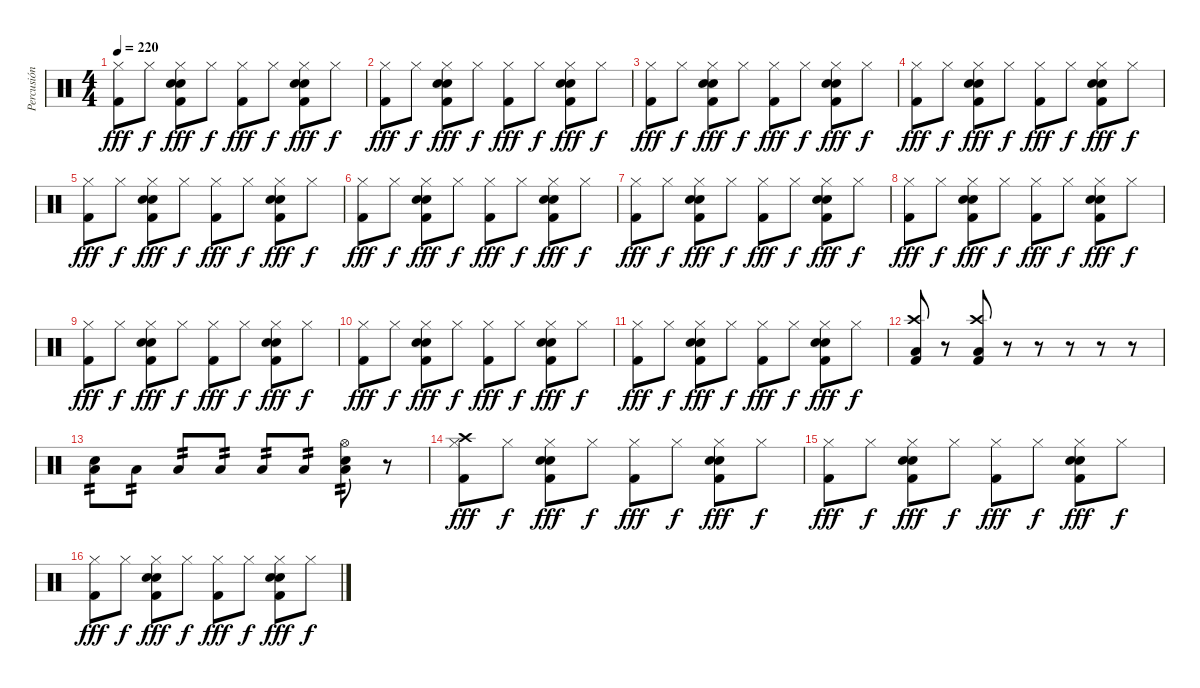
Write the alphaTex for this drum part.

\track ("Percusión" "Percusión") {instrument percussion}
\staff {score}
\articulation defaults
\ts (4 4)
\tempo 220
\clef neutral
\ks c
("Hi-Hat (closed)" "Kick (hit) 2").8{dy fff} "Hi-Hat (closed)".8{dy f} ("Hi-Hat (closed)" "Electric Snare (hit)" "Snare (hit) 2" "Kick (hit) 2").8{dy fff} "Hi-Hat (closed)".8{dy f} ("Hi-Hat (closed)" "Kick (hit) 2").8{dy fff} "Hi-Hat (closed)".8{dy f} ("Hi-Hat (closed)" "Electric Snare (hit)" "Snare (hit) 2" "Kick (hit) 2").8{dy fff} "Hi-Hat (closed)".8{dy f} |
("Hi-Hat (closed)" "Kick (hit) 2").8{dy fff} "Hi-Hat (closed)".8{dy f} ("Hi-Hat (closed)" "Electric Snare (hit)" "Snare (hit) 2" "Kick (hit) 2").8{dy fff} "Hi-Hat (closed)".8{dy f} ("Hi-Hat (closed)" "Kick (hit) 2").8{dy fff} "Hi-Hat (closed)".8{dy f} ("Hi-Hat (closed)" "Electric Snare (hit)" "Snare (hit) 2" "Kick (hit) 2").8{dy fff} "Hi-Hat (closed)".8{dy f} |
("Hi-Hat (closed)" "Kick (hit) 2").8{dy fff} "Hi-Hat (closed)".8{dy f} ("Hi-Hat (closed)" "Electric Snare (hit)" "Snare (hit) 2" "Kick (hit) 2").8{dy fff} "Hi-Hat (closed)".8{dy f} ("Hi-Hat (closed)" "Kick (hit) 2").8{dy fff} "Hi-Hat (closed)".8{dy f} ("Hi-Hat (closed)" "Electric Snare (hit)" "Snare (hit) 2" "Kick (hit) 2").8{dy fff} "Hi-Hat (closed)".8{dy f} |
("Hi-Hat (closed)" "Kick (hit) 2").8{dy fff} "Hi-Hat (closed)".8{dy f} ("Hi-Hat (closed)" "Electric Snare (hit)" "Snare (hit) 2" "Kick (hit) 2").8{dy fff} "Hi-Hat (closed)".8{dy f} ("Hi-Hat (closed)" "Kick (hit) 2").8{dy fff} "Hi-Hat (closed)".8{dy f} ("Hi-Hat (closed)" "Electric Snare (hit)" "Snare (hit) 2" "Kick (hit) 2").8{dy fff} "Hi-Hat (closed)".8{dy f} |
("Hi-Hat (closed)" "Kick (hit) 2").8{dy fff} "Hi-Hat (closed)".8{dy f} ("Hi-Hat (closed)" "Electric Snare (hit)" "Snare (hit) 2" "Kick (hit) 2").8{dy fff} "Hi-Hat (closed)".8{dy f} ("Hi-Hat (closed)" "Kick (hit) 2").8{dy fff} "Hi-Hat (closed)".8{dy f} ("Hi-Hat (closed)" "Electric Snare (hit)" "Snare (hit) 2" "Kick (hit) 2").8{dy fff} "Hi-Hat (closed)".8{dy f} |
("Hi-Hat (closed)" "Kick (hit) 2").8{dy fff} "Hi-Hat (closed)".8{dy f} ("Hi-Hat (closed)" "Electric Snare (hit)" "Snare (hit) 2" "Kick (hit) 2").8{dy fff} "Hi-Hat (closed)".8{dy f} ("Hi-Hat (closed)" "Kick (hit) 2").8{dy fff} "Hi-Hat (closed)".8{dy f} ("Hi-Hat (closed)" "Electric Snare (hit)" "Snare (hit) 2" "Kick (hit) 2").8{dy fff} "Hi-Hat (closed)".8{dy f} |
("Hi-Hat (closed)" "Kick (hit) 2").8{dy fff} "Hi-Hat (closed)".8{dy f} ("Hi-Hat (closed)" "Electric Snare (hit)" "Snare (hit) 2" "Kick (hit) 2").8{dy fff} "Hi-Hat (closed)".8{dy f} ("Hi-Hat (closed)" "Kick (hit) 2").8{dy fff} "Hi-Hat (closed)".8{dy f} ("Hi-Hat (closed)" "Electric Snare (hit)" "Snare (hit) 2" "Kick (hit) 2").8{dy fff} "Hi-Hat (closed)".8{dy f} |
("Hi-Hat (closed)" "Kick (hit) 2").8{dy fff} "Hi-Hat (closed)".8{dy f} ("Hi-Hat (closed)" "Electric Snare (hit)" "Snare (hit) 2" "Kick (hit) 2").8{dy fff} "Hi-Hat (closed)".8{dy f} ("Hi-Hat (closed)" "Kick (hit) 2").8{dy fff} "Hi-Hat (closed)".8{dy f} ("Hi-Hat (closed)" "Electric Snare (hit)" "Snare (hit) 2" "Kick (hit) 2").8{dy fff} "Hi-Hat (closed)".8{dy f} |
("Hi-Hat (closed)" "Kick (hit) 2").8{dy fff} "Hi-Hat (closed)".8{dy f} ("Hi-Hat (closed)" "Electric Snare (hit)" "Snare (hit) 2" "Kick (hit) 2").8{dy fff} "Hi-Hat (closed)".8{dy f} ("Hi-Hat (closed)" "Kick (hit) 2").8{dy fff} "Hi-Hat (closed)".8{dy f} ("Hi-Hat (closed)" "Electric Snare (hit)" "Snare (hit) 2" "Kick (hit) 2").8{dy fff} "Hi-Hat (closed)".8{dy f} |
("Hi-Hat (closed)" "Kick (hit) 2").8{dy fff} "Hi-Hat (closed)".8{dy f} ("Hi-Hat (closed)" "Electric Snare (hit)" "Snare (hit) 2" "Kick (hit) 2").8{dy fff} "Hi-Hat (closed)".8{dy f} ("Hi-Hat (closed)" "Kick (hit) 2").8{dy fff} "Hi-Hat (closed)".8{dy f} ("Hi-Hat (closed)" "Electric Snare (hit)" "Snare (hit) 2" "Kick (hit) 2").8{dy fff} "Hi-Hat (closed)".8{dy f} |
("Hi-Hat (closed)" "Kick (hit) 2").8{dy fff} "Hi-Hat (closed)".8{dy f} ("Hi-Hat (closed)" "Electric Snare (hit)" "Snare (hit) 2" "Kick (hit) 2").8{dy fff} "Hi-Hat (closed)".8{dy f} ("Hi-Hat (closed)" "Kick (hit) 2").8{dy fff} "Hi-Hat (closed)".8{dy f} ("Hi-Hat (closed)" "Electric Snare (hit)" "Snare (hit) 2" "Kick (hit) 2").8{dy fff} "Hi-Hat (closed)".8{dy f} |
("Crash high (hit)" "Kick (hit) 2" "Low Tom (hit)").8 r.8 ("Crash high (hit)" "Kick (hit) 2" "Low Tom (hit)").8 r.8 r.8 r.8 r.8 r.8 |
("Electric Snare (hit)" "Low Tom (hit)").8{tp 2} "Low Tom (hit)".8{tp 2} "Low Tom (hit)".8{tp 2} "Low Tom (hit)".8{tp 2} "Low Tom (hit)".8{tp 2} "Low Tom (hit)".8{tp 2} ("Hi-Hat (open)" "Snare (hit) 2" "Low Tom (hit)").8{tp 2} r.8 |
("Crash high (hit)" "Hi-Hat (closed)" "Kick (hit) 2").8{dy fff} "Hi-Hat (closed)".8{dy f} ("Hi-Hat (closed)" "Electric Snare (hit)" "Snare (hit) 2" "Kick (hit) 2").8{dy fff} "Hi-Hat (closed)".8{dy f} ("Hi-Hat (closed)" "Kick (hit) 2").8{dy fff} "Hi-Hat (closed)".8{dy f} ("Hi-Hat (closed)" "Electric Snare (hit)" "Snare (hit) 2" "Kick (hit) 2").8{dy fff} "Hi-Hat (closed)".8{dy f} |
("Hi-Hat (closed)" "Kick (hit) 2").8{dy fff} "Hi-Hat (closed)".8{dy f} ("Hi-Hat (closed)" "Electric Snare (hit)" "Snare (hit) 2" "Kick (hit) 2").8{dy fff} "Hi-Hat (closed)".8{dy f} ("Hi-Hat (closed)" "Kick (hit) 2").8{dy fff} "Hi-Hat (closed)".8{dy f} ("Hi-Hat (closed)" "Electric Snare (hit)" "Snare (hit) 2" "Kick (hit) 2").8{dy fff} "Hi-Hat (closed)".8{dy f} |
("Hi-Hat (closed)" "Kick (hit) 2").8{dy fff} "Hi-Hat (closed)".8{dy f} ("Hi-Hat (closed)" "Electric Snare (hit)" "Snare (hit) 2" "Kick (hit) 2").8{dy fff} "Hi-Hat (closed)".8{dy f} ("Hi-Hat (closed)" "Kick (hit) 2").8{dy fff} "Hi-Hat (closed)".8{dy f} ("Hi-Hat (closed)" "Electric Snare (hit)" "Snare (hit) 2" "Kick (hit) 2").8{dy fff} "Hi-Hat (closed)".8{dy f}
